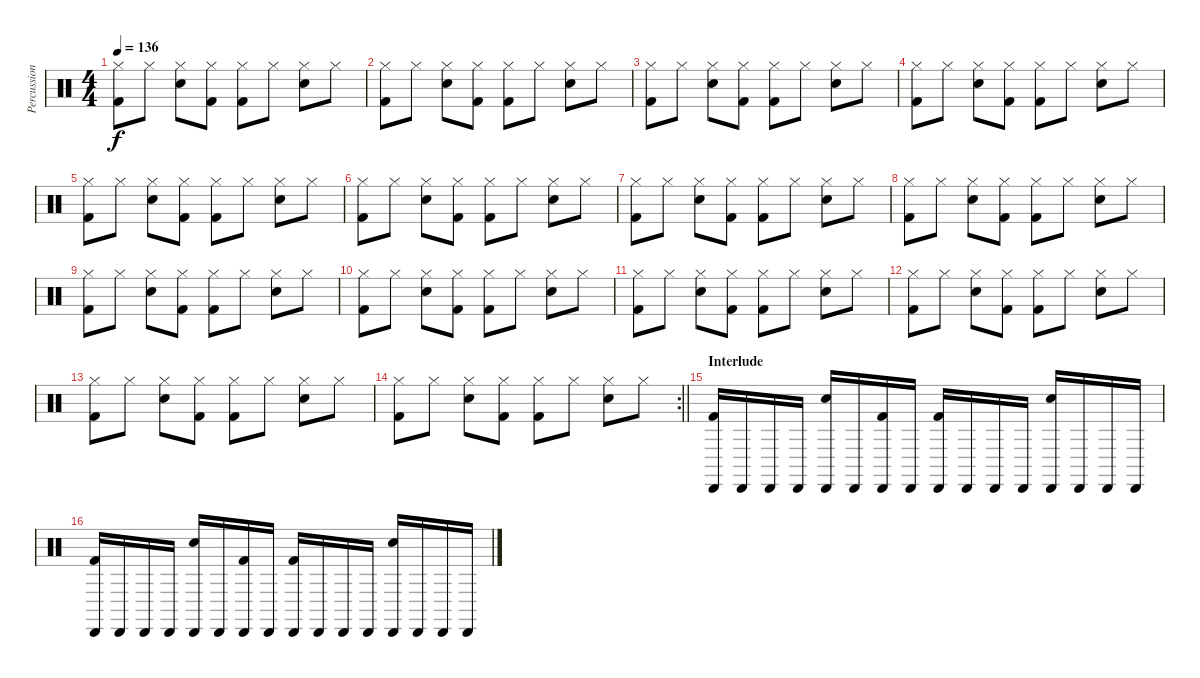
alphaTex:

\track ("Percussion" "Percussion") {instrument percussion}
\staff {score}
\articulation defaults
\ts (4 4)
\tempo 136
\clef neutral
\ks c
("Hi-Hat (closed)" "Kick (hit) 2").8{dy f} "Hi-Hat (closed)".8 ("Hi-Hat (closed)" "Snare (hit) 2").8 ("Hi-Hat (closed)" "Kick (hit) 2").8 ("Hi-Hat (closed)" "Kick (hit) 2").8 "Hi-Hat (closed)".8 ("Hi-Hat (closed)" "Snare (hit) 2").8 "Hi-Hat (closed)".8 |
("Hi-Hat (closed)" "Kick (hit) 2").8 "Hi-Hat (closed)".8 ("Hi-Hat (closed)" "Snare (hit) 2").8 ("Hi-Hat (closed)" "Kick (hit) 2").8 ("Hi-Hat (closed)" "Kick (hit) 2").8 "Hi-Hat (closed)".8 ("Hi-Hat (closed)" "Snare (hit) 2").8 "Hi-Hat (closed)".8 |
("Hi-Hat (closed)" "Kick (hit) 2").8 "Hi-Hat (closed)".8 ("Hi-Hat (closed)" "Snare (hit) 2").8 ("Hi-Hat (closed)" "Kick (hit) 2").8 ("Hi-Hat (closed)" "Kick (hit) 2").8 "Hi-Hat (closed)".8 ("Hi-Hat (closed)" "Snare (hit) 2").8 "Hi-Hat (closed)".8 |
("Hi-Hat (closed)" "Kick (hit) 2").8 "Hi-Hat (closed)".8 ("Hi-Hat (closed)" "Snare (hit) 2").8 ("Hi-Hat (closed)" "Kick (hit) 2").8 ("Hi-Hat (closed)" "Kick (hit) 2").8 "Hi-Hat (closed)".8 ("Hi-Hat (closed)" "Snare (hit) 2").8 "Hi-Hat (closed)".8 |
("Hi-Hat (closed)" "Kick (hit) 2").8 "Hi-Hat (closed)".8 ("Hi-Hat (closed)" "Snare (hit) 2").8 ("Hi-Hat (closed)" "Kick (hit) 2").8 ("Hi-Hat (closed)" "Kick (hit) 2").8 "Hi-Hat (closed)".8 ("Hi-Hat (closed)" "Snare (hit) 2").8 "Hi-Hat (closed)".8 |
("Hi-Hat (closed)" "Kick (hit) 2").8 "Hi-Hat (closed)".8 ("Hi-Hat (closed)" "Snare (hit) 2").8 ("Hi-Hat (closed)" "Kick (hit) 2").8 ("Hi-Hat (closed)" "Kick (hit) 2").8 "Hi-Hat (closed)".8 ("Hi-Hat (closed)" "Snare (hit) 2").8 "Hi-Hat (closed)".8 |
("Hi-Hat (closed)" "Kick (hit) 2").8 "Hi-Hat (closed)".8 ("Hi-Hat (closed)" "Snare (hit) 2").8 ("Hi-Hat (closed)" "Kick (hit) 2").8 ("Hi-Hat (closed)" "Kick (hit) 2").8 "Hi-Hat (closed)".8 ("Hi-Hat (closed)" "Snare (hit) 2").8 "Hi-Hat (closed)".8 |
("Hi-Hat (closed)" "Kick (hit) 2").8 "Hi-Hat (closed)".8 ("Hi-Hat (closed)" "Snare (hit) 2").8 ("Hi-Hat (closed)" "Kick (hit) 2").8 ("Hi-Hat (closed)" "Kick (hit) 2").8 "Hi-Hat (closed)".8 ("Hi-Hat (closed)" "Snare (hit) 2").8 "Hi-Hat (closed)".8 |
("Hi-Hat (closed)" "Kick (hit) 2").8 "Hi-Hat (closed)".8 ("Hi-Hat (closed)" "Snare (hit) 2").8 ("Hi-Hat (closed)" "Kick (hit) 2").8 ("Hi-Hat (closed)" "Kick (hit) 2").8 "Hi-Hat (closed)".8 ("Hi-Hat (closed)" "Snare (hit) 2").8 "Hi-Hat (closed)".8 |
("Hi-Hat (closed)" "Kick (hit) 2").8 "Hi-Hat (closed)".8 ("Hi-Hat (closed)" "Snare (hit) 2").8 ("Hi-Hat (closed)" "Kick (hit) 2").8 ("Hi-Hat (closed)" "Kick (hit) 2").8 "Hi-Hat (closed)".8 ("Hi-Hat (closed)" "Snare (hit) 2").8 "Hi-Hat (closed)".8 |
("Hi-Hat (closed)" "Kick (hit) 2").8 "Hi-Hat (closed)".8 ("Hi-Hat (closed)" "Snare (hit) 2").8 ("Hi-Hat (closed)" "Kick (hit) 2").8 ("Hi-Hat (closed)" "Kick (hit) 2").8 "Hi-Hat (closed)".8 ("Hi-Hat (closed)" "Snare (hit) 2").8 "Hi-Hat (closed)".8 |
("Hi-Hat (closed)" "Kick (hit) 2").8 "Hi-Hat (closed)".8 ("Hi-Hat (closed)" "Snare (hit) 2").8 ("Hi-Hat (closed)" "Kick (hit) 2").8 ("Hi-Hat (closed)" "Kick (hit) 2").8 "Hi-Hat (closed)".8 ("Hi-Hat (closed)" "Snare (hit) 2").8 "Hi-Hat (closed)".8 |
("Hi-Hat (closed)" "Kick (hit) 2").8 "Hi-Hat (closed)".8 ("Hi-Hat (closed)" "Snare (hit) 2").8 ("Hi-Hat (closed)" "Kick (hit) 2").8 ("Hi-Hat (closed)" "Kick (hit) 2").8 "Hi-Hat (closed)".8 ("Hi-Hat (closed)" "Snare (hit) 2").8 "Hi-Hat (closed)".8 |
\rc 2
\barLineRight lightlight
("Hi-Hat (closed)" "Kick (hit) 2").8 "Hi-Hat (closed)".8 ("Hi-Hat (closed)" "Snare (hit) 2").8 ("Hi-Hat (closed)" "Kick (hit) 2").8 ("Hi-Hat (closed)" "Kick (hit) 2").8 "Hi-Hat (closed)".8 ("Hi-Hat (closed)" "Snare (hit) 2").8 "Hi-Hat (closed)".8 |
\section ("" "Interlude")
("Cabasa (hit)" "Kick (hit) 2").16 "Cabasa (hit)".16 "Cabasa (hit)".16 "Cabasa (hit)".16 ("Cabasa (hit)" "Snare (hit) 2").16 "Cabasa (hit)".16 ("Cabasa (hit)" "Kick (hit) 2").16 "Cabasa (hit)".16 ("Cabasa (hit)" "Kick (hit) 2").16 "Cabasa (hit)".16 "Cabasa (hit)".16 "Cabasa (hit)".16 ("Cabasa (hit)" "Snare (hit) 2").16 "Cabasa (hit)".16 "Cabasa (hit)".16 "Cabasa (hit)".16 |
("Cabasa (hit)" "Kick (hit) 2").16 "Cabasa (hit)".16 "Cabasa (hit)".16 "Cabasa (hit)".16 ("Cabasa (hit)" "Snare (hit) 2").16 "Cabasa (hit)".16 ("Cabasa (hit)" "Kick (hit) 2").16 "Cabasa (hit)".16 ("Cabasa (hit)" "Kick (hit) 2").16 "Cabasa (hit)".16 "Cabasa (hit)".16 "Cabasa (hit)".16 ("Cabasa (hit)" "Snare (hit) 2").16 "Cabasa (hit)".16 "Cabasa (hit)".16 "Cabasa (hit)".16
